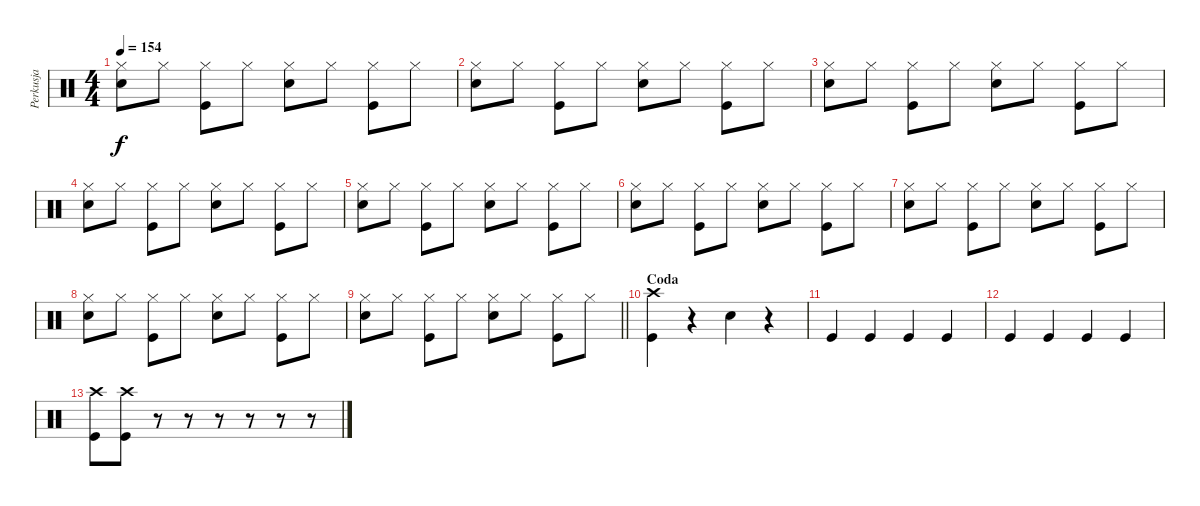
\track ("Perkusja" "Perkusja") {instrument percussion}
\staff {score}
\articulation defaults
\ts (4 4)
\tempo 154
\clef neutral
\ks c
("Hi-Hat (closed)" "Snare (hit) 2").8{dy f} "Hi-Hat (closed)".8 ("Hi-Hat (closed)" "Kick (hit)").8 "Hi-Hat (closed)".8 ("Snare (hit) 2" "Hi-Hat (closed)").8 "Hi-Hat (closed)".8 ("Hi-Hat (closed)" "Kick (hit)").8 "Hi-Hat (closed)".8 |
("Hi-Hat (closed)" "Snare (hit) 2").8 "Hi-Hat (closed)".8 ("Hi-Hat (closed)" "Kick (hit)").8 "Hi-Hat (closed)".8 ("Snare (hit) 2" "Hi-Hat (closed)").8 "Hi-Hat (closed)".8 ("Hi-Hat (closed)" "Kick (hit)").8 "Hi-Hat (closed)".8 |
("Hi-Hat (closed)" "Snare (hit) 2").8 "Hi-Hat (closed)".8 ("Hi-Hat (closed)" "Kick (hit)").8 "Hi-Hat (closed)".8 ("Snare (hit) 2" "Hi-Hat (closed)").8 "Hi-Hat (closed)".8 ("Hi-Hat (closed)" "Kick (hit)").8 "Hi-Hat (closed)".8 |
("Hi-Hat (closed)" "Snare (hit) 2").8 "Hi-Hat (closed)".8 ("Hi-Hat (closed)" "Kick (hit)").8 "Hi-Hat (closed)".8 ("Snare (hit) 2" "Hi-Hat (closed)").8 "Hi-Hat (closed)".8 ("Hi-Hat (closed)" "Kick (hit)").8 "Hi-Hat (closed)".8 |
("Hi-Hat (closed)" "Snare (hit) 2").8 "Hi-Hat (closed)".8 ("Hi-Hat (closed)" "Kick (hit)").8 "Hi-Hat (closed)".8 ("Snare (hit) 2" "Hi-Hat (closed)").8 "Hi-Hat (closed)".8 ("Hi-Hat (closed)" "Kick (hit)").8 "Hi-Hat (closed)".8 |
("Hi-Hat (closed)" "Snare (hit) 2").8 "Hi-Hat (closed)".8 ("Hi-Hat (closed)" "Kick (hit)").8 "Hi-Hat (closed)".8 ("Snare (hit) 2" "Hi-Hat (closed)").8 "Hi-Hat (closed)".8 ("Hi-Hat (closed)" "Kick (hit)").8 "Hi-Hat (closed)".8 |
("Hi-Hat (closed)" "Snare (hit) 2").8 "Hi-Hat (closed)".8 ("Hi-Hat (closed)" "Kick (hit)").8 "Hi-Hat (closed)".8 ("Snare (hit) 2" "Hi-Hat (closed)").8 "Hi-Hat (closed)".8 ("Hi-Hat (closed)" "Kick (hit)").8 "Hi-Hat (closed)".8 |
("Hi-Hat (closed)" "Snare (hit) 2").8 "Hi-Hat (closed)".8 ("Hi-Hat (closed)" "Kick (hit)").8 "Hi-Hat (closed)".8 ("Snare (hit) 2" "Hi-Hat (closed)").8 "Hi-Hat (closed)".8 ("Hi-Hat (closed)" "Kick (hit)").8 "Hi-Hat (closed)".8 |
\barLineRight lightlight
("Hi-Hat (closed)" "Snare (hit) 2").8 "Hi-Hat (closed)".8 ("Hi-Hat (closed)" "Kick (hit)").8 "Hi-Hat (closed)".8 ("Snare (hit) 2" "Hi-Hat (closed)").8 "Hi-Hat (closed)".8 ("Hi-Hat (closed)" "Kick (hit)").8 "Hi-Hat (closed)".8 |
\section ("" "Coda")
("Kick (hit)" "Crash high (hit)").4 r.4 "Snare (hit) 2".4 r.4 |
"Kick (hit)".4 "Kick (hit)".4 "Kick (hit)".4 "Kick (hit)".4 |
"Kick (hit)".4 "Kick (hit)".4 "Kick (hit)".4 "Kick (hit)".4 |
("Kick (hit)" "Crash high (hit)").8 ("Kick (hit)" "Crash high (hit)").8 r.8 r.8 r.8 r.8 r.8 r.8
